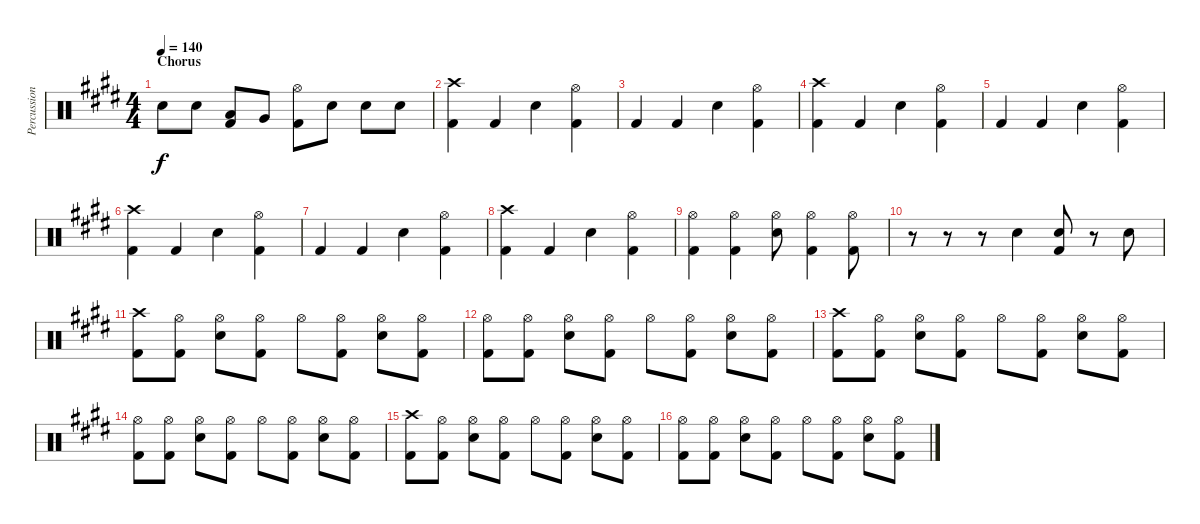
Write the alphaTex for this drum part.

\track ("Percussion" "Percussion") {instrument percussion}
\staff {score}
\articulation defaults
\ts (4 4)
\section ("" "Chorus")
\tempo 140
\clef neutral
\ks e "Electric Snare (hit)".8{dy f} "Electric Snare (hit)".8
("Low Tom (hit)" "Kick (hit) 2").8 "Very Low Tom (hit)".8 ("Hi-Hat (open)" "Kick (hit) 2").8 "Electric Snare (hit)".8 "Electric Snare (hit)".8 "Electric Snare (hit)".8 |
("Crash high (hit)" "Kick (hit) 2").4 "Kick (hit) 2".4 "Electric Snare (hit)".4 ("Hi-Hat (open)" "Kick (hit) 2").4 |
"Kick (hit) 2".4 "Kick (hit) 2".4 "Electric Snare (hit)".4 ("Hi-Hat (open)" "Kick (hit) 2").4 |
("Crash high (hit)" "Kick (hit) 2").4 "Kick (hit) 2".4 "Electric Snare (hit)".4 ("Hi-Hat (open)" "Kick (hit) 2").4 |
"Kick (hit) 2".4 "Kick (hit) 2".4 "Electric Snare (hit)".4 ("Hi-Hat (open)" "Kick (hit) 2").4 |
("Crash high (hit)" "Kick (hit) 2").4 "Kick (hit) 2".4 "Electric Snare (hit)".4 ("Hi-Hat (open)" "Kick (hit) 2").4 |
"Kick (hit) 2".4 "Kick (hit) 2".4 "Electric Snare (hit)".4 ("Hi-Hat (open)" "Kick (hit) 2").4 |
("Crash high (hit)" "Kick (hit) 2").4 "Kick (hit) 2".4 "Electric Snare (hit)".4 ("Hi-Hat (open)" "Kick (hit) 2").4 |
("Hi-Hat (open)" "Kick (hit) 2").4 ("Hi-Hat (open)" "Kick (hit) 2").4 ("Hi-Hat (open)" "Electric Snare (hit)").8 ("Hi-Hat (open)" "Kick (hit) 2").4 ("Hi-Hat (open)" "Kick (hit) 2").8 |
r.8 r.8 r.8 "Electric Snare (hit)".4 ("Electric Snare (hit)" "Kick (hit) 2").8 r.8 "Electric Snare (hit)".8 |
("Crash high (hit)" "Kick (hit) 2").8 ("Hi-Hat (open)" "Kick (hit) 2").8 ("Hi-Hat (open)" "Electric Snare (hit)").8 ("Hi-Hat (open)" "Kick (hit) 2").8 "Hi-Hat (open)".8 ("Hi-Hat (open)" "Kick (hit) 2").8 ("Hi-Hat (open)" "Electric Snare (hit)").8 ("Hi-Hat (open)" "Kick (hit) 2").8 |
("Hi-Hat (open)" "Kick (hit) 2").8 ("Hi-Hat (open)" "Kick (hit) 2").8 ("Hi-Hat (open)" "Electric Snare (hit)").8 ("Hi-Hat (open)" "Kick (hit) 2").8 "Hi-Hat (open)".8 ("Hi-Hat (open)" "Kick (hit) 2").8 ("Hi-Hat (open)" "Electric Snare (hit)").8 ("Hi-Hat (open)" "Kick (hit) 2").8 |
("Crash high (hit)" "Kick (hit) 2").8 ("Hi-Hat (open)" "Kick (hit) 2").8 ("Hi-Hat (open)" "Electric Snare (hit)").8 ("Hi-Hat (open)" "Kick (hit) 2").8 "Hi-Hat (open)".8 ("Hi-Hat (open)" "Kick (hit) 2").8 ("Hi-Hat (open)" "Electric Snare (hit)").8 ("Hi-Hat (open)" "Kick (hit) 2").8 |
("Hi-Hat (open)" "Kick (hit) 2").8 ("Hi-Hat (open)" "Kick (hit) 2").8 ("Hi-Hat (open)" "Electric Snare (hit)").8 ("Hi-Hat (open)" "Kick (hit) 2").8 "Hi-Hat (open)".8 ("Hi-Hat (open)" "Kick (hit) 2").8 ("Hi-Hat (open)" "Electric Snare (hit)").8 ("Hi-Hat (open)" "Kick (hit) 2").8 |
("Crash high (hit)" "Kick (hit) 2").8 ("Hi-Hat (open)" "Kick (hit) 2").8 ("Hi-Hat (open)" "Electric Snare (hit)").8 ("Hi-Hat (open)" "Kick (hit) 2").8 "Hi-Hat (open)".8 ("Hi-Hat (open)" "Kick (hit) 2").8 ("Hi-Hat (open)" "Electric Snare (hit)").8 ("Hi-Hat (open)" "Kick (hit) 2").8 |
("Hi-Hat (open)" "Kick (hit) 2").8 ("Hi-Hat (open)" "Kick (hit) 2").8 ("Hi-Hat (open)" "Electric Snare (hit)").8 ("Hi-Hat (open)" "Kick (hit) 2").8 "Hi-Hat (open)".8 ("Hi-Hat (open)" "Kick (hit) 2").8 ("Hi-Hat (open)" "Electric Snare (hit)").8 ("Hi-Hat (open)" "Kick (hit) 2").8
